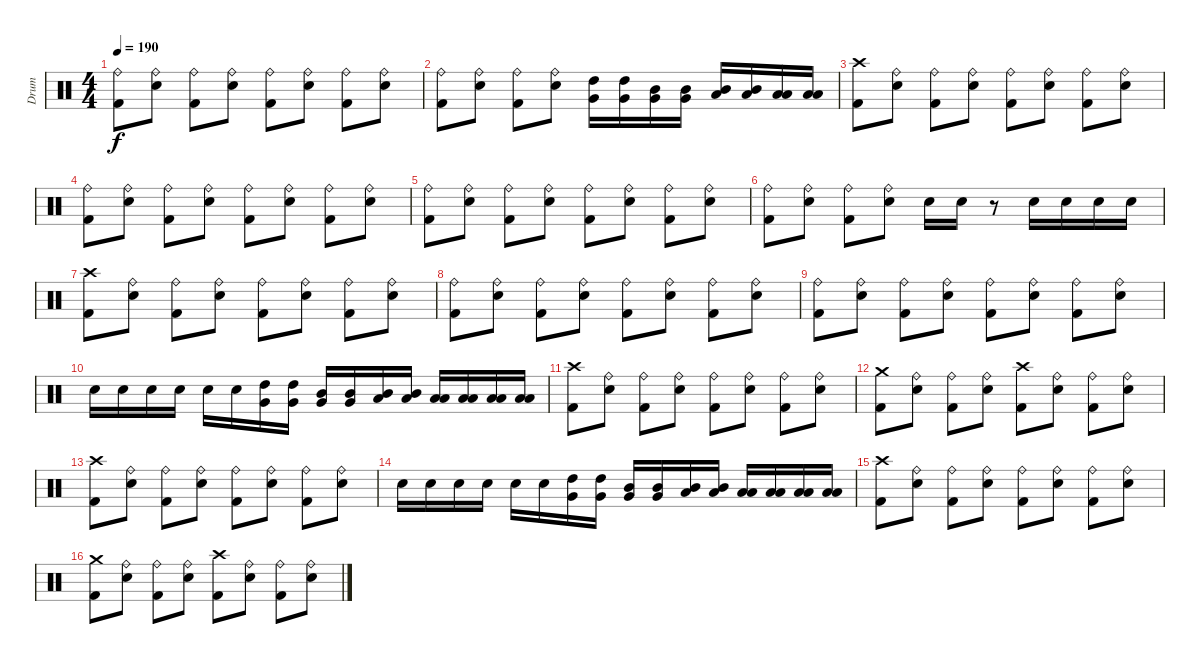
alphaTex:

\track ("Drum" "Drum") {instrument percussion}
\staff {score}
\articulation defaults
\ts (4 4)
\tempo 190
\clef neutral
\ks c
("Ride (bell)" "Kick (hit) 2").8{dy f} ("Ride (bell)" "Snare (hit) 2").8 ("Ride (bell)" "Kick (hit) 2").8 ("Ride (bell)" "Snare (hit) 2").8 ("Ride (bell)" "Kick (hit) 2").8 ("Ride (bell)" "Snare (hit) 2").8 ("Ride (bell)" "Kick (hit) 2").8 ("Ride (bell)" "Snare (hit) 2").8 |
("Ride (bell)" "Kick (hit) 2").8 ("Ride (bell)" "Snare (hit) 2").8 ("Ride (bell)" "Kick (hit) 2").8 ("Ride (bell)" "Snare (hit) 2").8 ("High Tom (hit)" "Very Low Tom (hit)").16 ("High Tom (hit)" "Very Low Tom (hit)").16 ("Mid Tom (hit)" "Very Low Tom (hit)").16 ("Mid Tom (hit)" "Very Low Tom (hit)").16 ("Mid Tom (hit)" "Low Floor Tom (hit)").16 ("Mid Tom (hit)" "Low Floor Tom (hit)").16 ("Low Tom (hit)" "Low Floor Tom (hit)").16 ("Low Tom (hit)" "Low Floor Tom (hit)").16 |
("Crash high (hit)" "Kick (hit) 2").8 ("Ride (bell)" "Snare (hit) 2").8 ("Ride (bell)" "Kick (hit) 2").8 ("Ride (bell)" "Snare (hit) 2").8 ("Ride (bell)" "Kick (hit) 2").8 ("Ride (bell)" "Snare (hit) 2").8 ("Ride (bell)" "Kick (hit) 2").8 ("Ride (bell)" "Snare (hit) 2").8 |
("Ride (bell)" "Kick (hit) 2").8 ("Ride (bell)" "Snare (hit) 2").8 ("Ride (bell)" "Kick (hit) 2").8 ("Ride (bell)" "Snare (hit) 2").8 ("Ride (bell)" "Kick (hit) 2").8 ("Ride (bell)" "Snare (hit) 2").8 ("Ride (bell)" "Kick (hit) 2").8 ("Ride (bell)" "Snare (hit) 2").8 |
("Ride (bell)" "Kick (hit) 2").8 ("Ride (bell)" "Snare (hit) 2").8 ("Ride (bell)" "Kick (hit) 2").8 ("Ride (bell)" "Snare (hit) 2").8 ("Ride (bell)" "Kick (hit) 2").8 ("Ride (bell)" "Snare (hit) 2").8 ("Ride (bell)" "Kick (hit) 2").8 ("Ride (bell)" "Snare (hit) 2").8 |
("Ride (bell)" "Kick (hit) 2").8 ("Ride (bell)" "Snare (hit) 2").8 ("Ride (bell)" "Kick (hit) 2").8 ("Ride (bell)" "Snare (hit) 2").8 "Snare (hit) 2".16 "Snare (hit) 2".16 r.8 "Snare (hit) 2".16 "Snare (hit) 2".16 "Snare (hit) 2".16 "Snare (hit) 2".16 |
("Crash high (hit)" "Kick (hit) 2").8 ("Ride (bell)" "Snare (hit) 2").8 ("Ride (bell)" "Kick (hit) 2").8 ("Ride (bell)" "Snare (hit) 2").8 ("Ride (bell)" "Kick (hit) 2").8 ("Ride (bell)" "Snare (hit) 2").8 ("Ride (bell)" "Kick (hit) 2").8 ("Ride (bell)" "Snare (hit) 2").8 |
("Ride (bell)" "Kick (hit) 2").8 ("Ride (bell)" "Snare (hit) 2").8 ("Ride (bell)" "Kick (hit) 2").8 ("Ride (bell)" "Snare (hit) 2").8 ("Ride (bell)" "Kick (hit) 2").8 ("Ride (bell)" "Snare (hit) 2").8 ("Ride (bell)" "Kick (hit) 2").8 ("Ride (bell)" "Snare (hit) 2").8 |
("Ride (bell)" "Kick (hit) 2").8 ("Ride (bell)" "Snare (hit) 2").8 ("Ride (bell)" "Kick (hit) 2").8 ("Ride (bell)" "Snare (hit) 2").8 ("Ride (bell)" "Kick (hit) 2").8 ("Ride (bell)" "Snare (hit) 2").8 ("Ride (bell)" "Kick (hit) 2").8 ("Ride (bell)" "Snare (hit) 2").8 |
"Snare (hit) 2".16 "Snare (hit) 2".16 "Snare (hit) 2".16 "Snare (hit) 2".16 "Snare (hit) 2".16 "Snare (hit) 2".16 ("High Tom (hit)" "Very Low Tom (hit)").16 ("High Tom (hit)" "Very Low Tom (hit)").16 ("Mid Tom (hit)" "Very Low Tom (hit)").16 ("Mid Tom (hit)" "Very Low Tom (hit)").16 ("Mid Tom (hit)" "Low Floor Tom (hit)").16 ("Mid Tom (hit)" "Low Floor Tom (hit)").16 ("Low Tom (hit)" "Low Floor Tom (hit)").16 ("Low Tom (hit)" "Low Floor Tom (hit)").16 ("Low Tom (hit)" "Low Floor Tom (hit)").16 ("Low Tom (hit)" "Low Floor Tom (hit)").16 |
("Crash high (hit)" "Kick (hit) 2").8 ("Ride (bell)" "Snare (hit) 2").8 ("Ride (bell)" "Kick (hit) 2").8 ("Ride (bell)" "Snare (hit) 2").8 ("Ride (bell)" "Kick (hit) 2").8 ("Ride (bell)" "Snare (hit) 2").8 ("Ride (bell)" "Kick (hit) 2").8 ("Ride (bell)" "Snare (hit) 2").8 |
("Crash medium (hit)" "Kick (hit) 2").8 ("Ride (bell)" "Snare (hit) 2").8 ("Ride (bell)" "Kick (hit) 2").8 ("Ride (bell)" "Snare (hit) 2").8 ("Crash high (hit)" "Kick (hit) 2").8 ("Ride (bell)" "Snare (hit) 2").8 ("Ride (bell)" "Kick (hit) 2").8 ("Ride (bell)" "Snare (hit) 2").8 |
("Crash high (hit)" "Kick (hit) 2").8 ("Ride (bell)" "Snare (hit) 2").8 ("Ride (bell)" "Kick (hit) 2").8 ("Ride (bell)" "Snare (hit) 2").8 ("Ride (bell)" "Kick (hit) 2").8 ("Ride (bell)" "Snare (hit) 2").8 ("Ride (bell)" "Kick (hit) 2").8 ("Ride (bell)" "Snare (hit) 2").8 |
"Snare (hit) 2".16 "Snare (hit) 2".16 "Snare (hit) 2".16 "Snare (hit) 2".16 "Snare (hit) 2".16 "Snare (hit) 2".16 ("High Tom (hit)" "Very Low Tom (hit)").16 ("High Tom (hit)" "Very Low Tom (hit)").16 ("Mid Tom (hit)" "Very Low Tom (hit)").16 ("Mid Tom (hit)" "Very Low Tom (hit)").16 ("Mid Tom (hit)" "Low Floor Tom (hit)").16 ("Mid Tom (hit)" "Low Floor Tom (hit)").16 ("Low Tom (hit)" "Low Floor Tom (hit)").16 ("Low Tom (hit)" "Low Floor Tom (hit)").16 ("Low Tom (hit)" "Low Floor Tom (hit)").16 ("Low Tom (hit)" "Low Floor Tom (hit)").16 |
("Crash high (hit)" "Kick (hit) 2").8 ("Ride (bell)" "Snare (hit) 2").8 ("Ride (bell)" "Kick (hit) 2").8 ("Ride (bell)" "Snare (hit) 2").8 ("Ride (bell)" "Kick (hit) 2").8 ("Ride (bell)" "Snare (hit) 2").8 ("Ride (bell)" "Kick (hit) 2").8 ("Ride (bell)" "Snare (hit) 2").8 |
("Crash medium (hit)" "Kick (hit) 2").8 ("Ride (bell)" "Snare (hit) 2").8 ("Ride (bell)" "Kick (hit) 2").8 ("Ride (bell)" "Snare (hit) 2").8 ("Crash high (hit)" "Kick (hit) 2").8 ("Ride (bell)" "Snare (hit) 2").8 ("Ride (bell)" "Kick (hit) 2").8 ("Ride (bell)" "Snare (hit) 2").8
